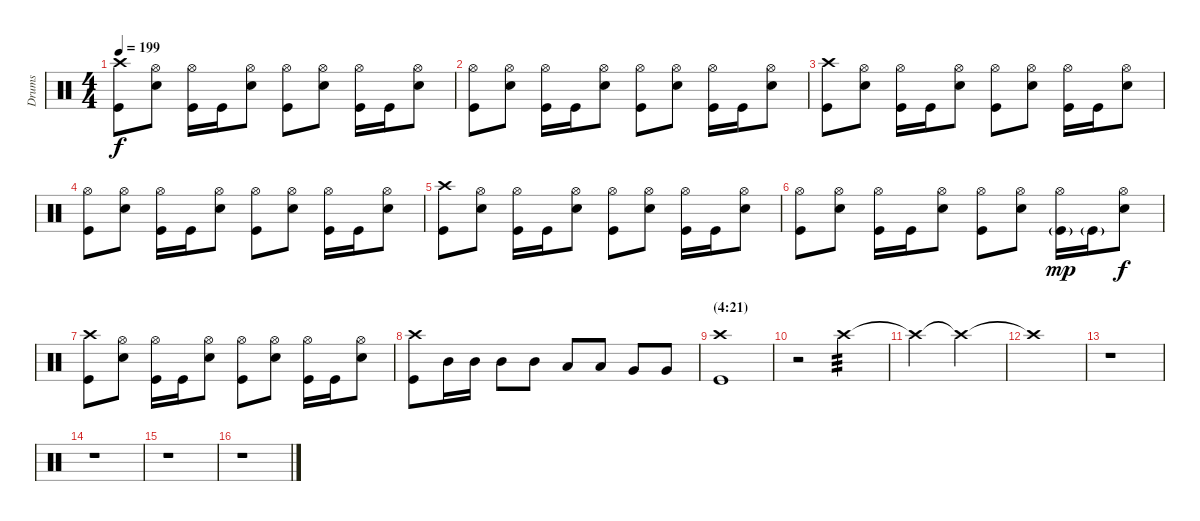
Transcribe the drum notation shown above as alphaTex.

\track ("Drums" "Drums") {instrument percussion}
\staff {score}
\articulation defaults
\ts (4 4)
\tempo 199
\clef neutral
\ks c
("Crash high (hit)" "Kick (hit)").8{dy f} ("Hi-Hat (open)" "Snare (hit) 2").8 ("Hi-Hat (open)" "Kick (hit)").16 "Kick (hit)".16 ("Hi-Hat (open)" "Snare (hit) 2").8 ("Hi-Hat (open)" "Kick (hit)").8 ("Hi-Hat (open)" "Snare (hit) 2").8 ("Hi-Hat (open)" "Kick (hit)").16 "Kick (hit)".16 ("Hi-Hat (open)" "Snare (hit) 2").8 |
("Hi-Hat (open)" "Kick (hit)").8 ("Hi-Hat (open)" "Snare (hit) 2").8 ("Hi-Hat (open)" "Kick (hit)").16 "Kick (hit)".16 ("Hi-Hat (open)" "Snare (hit) 2").8 ("Hi-Hat (open)" "Kick (hit)").8 ("Hi-Hat (open)" "Snare (hit) 2").8 ("Hi-Hat (open)" "Kick (hit)").16 "Kick (hit)".16 ("Hi-Hat (open)" "Snare (hit) 2").8 |
("Crash high (hit)" "Kick (hit)").8 ("Hi-Hat (open)" "Snare (hit) 2").8 ("Hi-Hat (open)" "Kick (hit)").16 "Kick (hit)".16 ("Hi-Hat (open)" "Snare (hit) 2").8 ("Hi-Hat (open)" "Kick (hit)").8 ("Hi-Hat (open)" "Snare (hit) 2").8 ("Hi-Hat (open)" "Kick (hit)").16 "Kick (hit)".16 ("Hi-Hat (open)" "Snare (hit) 2").8 |
("Hi-Hat (open)" "Kick (hit)").8 ("Hi-Hat (open)" "Snare (hit) 2").8 ("Hi-Hat (open)" "Kick (hit)").16 "Kick (hit)".16 ("Hi-Hat (open)" "Snare (hit) 2").8 ("Hi-Hat (open)" "Kick (hit)").8 ("Hi-Hat (open)" "Snare (hit) 2").8 ("Hi-Hat (open)" "Kick (hit)").16 "Kick (hit)".16 ("Hi-Hat (open)" "Snare (hit) 2").8 |
("Crash high (hit)" "Kick (hit)").8 ("Hi-Hat (open)" "Snare (hit) 2").8 ("Hi-Hat (open)" "Kick (hit)").16 "Kick (hit)".16 ("Hi-Hat (open)" "Snare (hit) 2").8 ("Hi-Hat (open)" "Kick (hit)").8 ("Hi-Hat (open)" "Snare (hit) 2").8 ("Hi-Hat (open)" "Kick (hit)").16 "Kick (hit)".16 ("Hi-Hat (open)" "Snare (hit) 2").8 |
("Hi-Hat (open)" "Kick (hit)").8 ("Hi-Hat (open)" "Snare (hit) 2").8 ("Hi-Hat (open)" "Kick (hit)").16 "Kick (hit)".16 ("Hi-Hat (open)" "Snare (hit) 2").8 ("Hi-Hat (open)" "Kick (hit)").8 ("Hi-Hat (open)" "Snare (hit) 2").8 ("Hi-Hat (open)" "Kick (hit)"{g}).16{dy mp} "Kick (hit)"{g}.16 ("Hi-Hat (open)" "Snare (hit) 2").8{dy f} |
("Crash high (hit)" "Kick (hit)").8 ("Hi-Hat (open)" "Snare (hit) 2").8 ("Hi-Hat (open)" "Kick (hit)").16 "Kick (hit)".16 ("Hi-Hat (open)" "Snare (hit) 2").8 ("Hi-Hat (open)" "Kick (hit)").8 ("Hi-Hat (open)" "Snare (hit) 2").8 ("Hi-Hat (open)" "Kick (hit)").16 "Kick (hit)".16 ("Hi-Hat (open)" "Snare (hit) 2").8 |
("Crash high (hit)" "Kick (hit)").8 "Mid Tom (hit)".16 "Mid Tom (hit)".16 "Mid Tom (hit)".8 "Mid Tom (hit)".8 "Low Tom (hit)".8 "Low Tom (hit)".8 "Very Low Tom (hit)".8 "Very Low Tom (hit)".8 |
\section ("" "(4:21)")
("Crash high (hit)" "Kick (hit)").1 |
r.2{volume 0} "Crash high (hit)".2{tp 3 volume 8} |
"Crash high (hit)"{t}.2{volume 12} "Crash high (hit)"{t}.2{volume 10} |
"Crash high (hit)"{t}.1{volume 15} |
r.1 |
r.1 |
r.1 |
r.1
